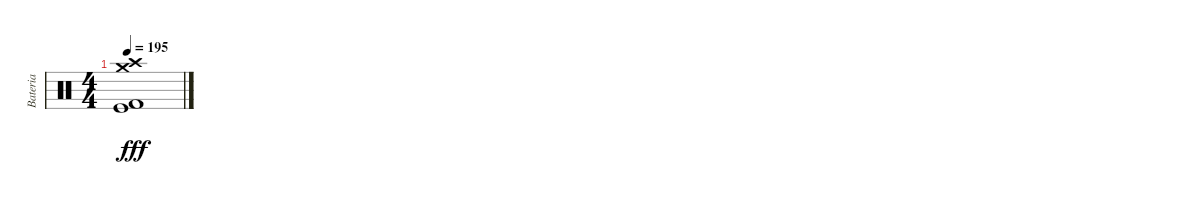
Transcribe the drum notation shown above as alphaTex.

\track ("Bateria" "Bateria") {instrument percussion}
\staff {score}
\articulation defaults
\ts (4 4)
\tempo 195
\clef neutral
\ks c
("Crash high (hit)" "Crash medium (hit)" "Kick (hit) 2" "Kick (hit)").1{dy fff}
